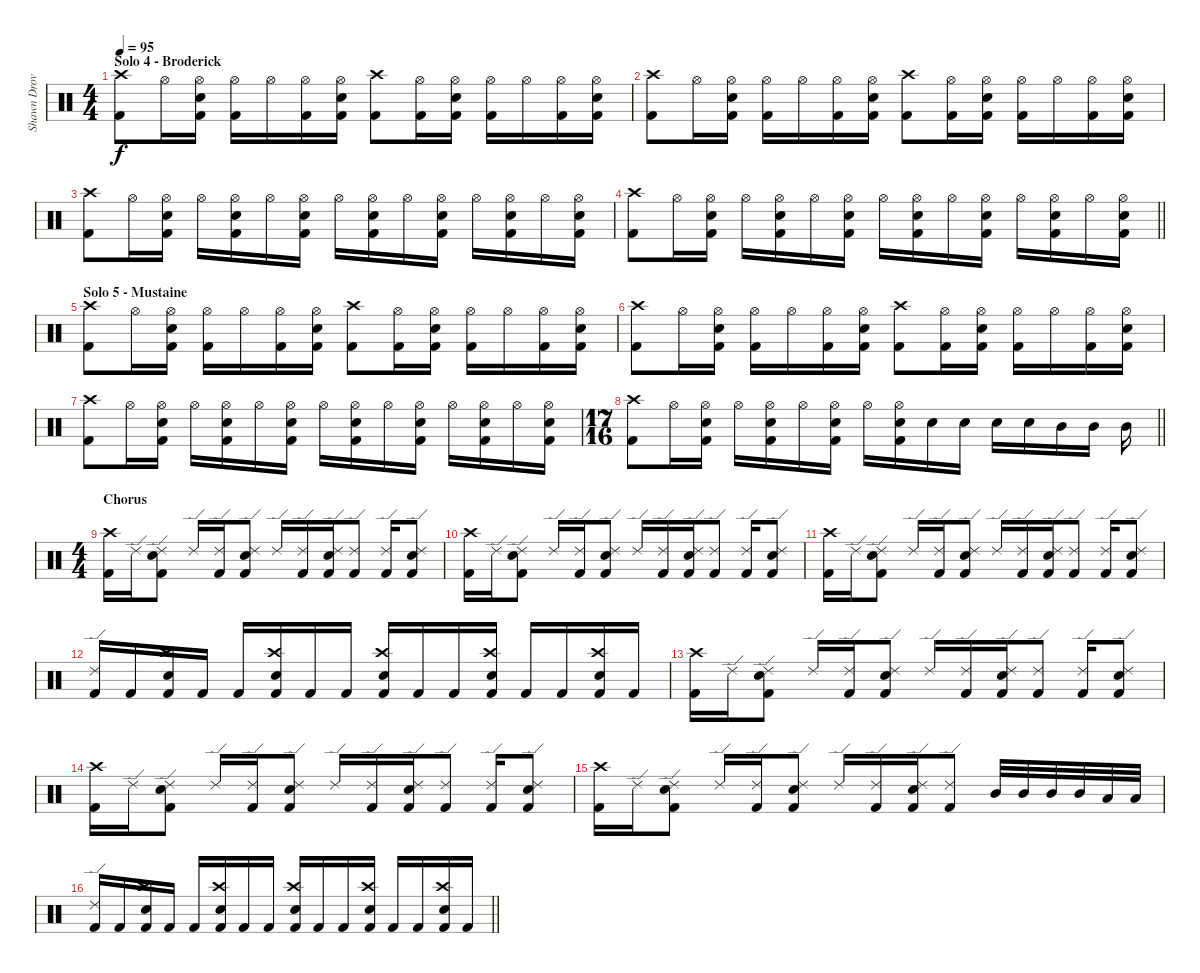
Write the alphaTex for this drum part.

\track ("Shawn Drover " "Shawn Drov") {instrument percussion}
\staff {score}
\articulation defaults
\ts (4 4)
\section ("" "Solo 4 - Broderick")
\tempo 95
\clef neutral
\ks c
("Kick (hit) 2" "Crash high (hit)").8{dy f} "Hi-Hat (open)".16 ("Kick (hit) 2" "Snare (hit) 2" "Hi-Hat (open)").16 ("Kick (hit) 2" "Hi-Hat (open)").16 "Hi-Hat (open)".16 ("Kick (hit) 2" "Hi-Hat (open)").16 ("Kick (hit) 2" "Snare (hit) 2" "Hi-Hat (open)").16 ("Kick (hit) 2" "Crash high (hit)").8 ("Kick (hit) 2" "Hi-Hat (open)").16 ("Kick (hit) 2" "Snare (hit) 2" "Hi-Hat (open)").16 ("Kick (hit) 2" "Hi-Hat (open)").16 "Hi-Hat (open)".16 ("Kick (hit) 2" "Hi-Hat (open)").16 ("Kick (hit) 2" "Snare (hit) 2" "Hi-Hat (open)").16 |
("Kick (hit) 2" "Crash high (hit)").8 "Hi-Hat (open)".16 ("Kick (hit) 2" "Snare (hit) 2" "Hi-Hat (open)").16 ("Kick (hit) 2" "Hi-Hat (open)").16 "Hi-Hat (open)".16 ("Kick (hit) 2" "Hi-Hat (open)").16 ("Kick (hit) 2" "Snare (hit) 2" "Hi-Hat (open)").16 ("Kick (hit) 2" "Crash high (hit)").8 ("Kick (hit) 2" "Hi-Hat (open)").16 ("Kick (hit) 2" "Snare (hit) 2" "Hi-Hat (open)").16 ("Kick (hit) 2" "Hi-Hat (open)").16 "Hi-Hat (open)".16 ("Kick (hit) 2" "Hi-Hat (open)").16 ("Kick (hit) 2" "Snare (hit) 2" "Hi-Hat (open)").16 |
("Kick (hit) 2" "Crash high (hit)").8 "Hi-Hat (open)".16 ("Kick (hit) 2" "Snare (hit) 2" "Hi-Hat (open)").16 "Hi-Hat (open)".16 ("Kick (hit) 2" "Snare (hit) 2" "Hi-Hat (open)").16 "Hi-Hat (open)".16 ("Kick (hit) 2" "Snare (hit) 2" "Hi-Hat (open)").16 "Hi-Hat (open)".16 ("Kick (hit) 2" "Snare (hit) 2" "Hi-Hat (open)").16 "Hi-Hat (open)".16 ("Kick (hit) 2" "Snare (hit) 2" "Hi-Hat (open)").16 "Hi-Hat (open)".16 ("Kick (hit) 2" "Snare (hit) 2" "Hi-Hat (open)").16 "Hi-Hat (open)".16 ("Kick (hit) 2" "Snare (hit) 2" "Hi-Hat (open)").16 |
\barLineRight lightlight
("Kick (hit) 2" "Crash high (hit)").8 "Hi-Hat (open)".16 ("Kick (hit) 2" "Snare (hit) 2" "Hi-Hat (open)").16 "Hi-Hat (open)".16 ("Kick (hit) 2" "Snare (hit) 2" "Hi-Hat (open)").16 "Hi-Hat (open)".16 ("Kick (hit) 2" "Snare (hit) 2" "Hi-Hat (open)").16 "Hi-Hat (open)".16 ("Kick (hit) 2" "Snare (hit) 2" "Hi-Hat (open)").16 "Hi-Hat (open)".16 ("Kick (hit) 2" "Snare (hit) 2" "Hi-Hat (open)").16 "Hi-Hat (open)".16 ("Kick (hit) 2" "Snare (hit) 2" "Hi-Hat (open)").16 "Hi-Hat (open)".16 ("Kick (hit) 2" "Snare (hit) 2" "Hi-Hat (open)").16 |
\section ("" "Solo 5 - Mustaine")
("Kick (hit) 2" "Crash high (hit)").8 "Hi-Hat (open)".16 ("Kick (hit) 2" "Snare (hit) 2" "Hi-Hat (open)").16 ("Kick (hit) 2" "Hi-Hat (open)").16 "Hi-Hat (open)".16 ("Kick (hit) 2" "Hi-Hat (open)").16 ("Kick (hit) 2" "Snare (hit) 2" "Hi-Hat (open)").16 ("Kick (hit) 2" "Crash high (hit)").8 ("Kick (hit) 2" "Hi-Hat (open)").16 ("Kick (hit) 2" "Snare (hit) 2" "Hi-Hat (open)").16 ("Kick (hit) 2" "Hi-Hat (open)").16 "Hi-Hat (open)".16 ("Kick (hit) 2" "Hi-Hat (open)").16 ("Kick (hit) 2" "Snare (hit) 2" "Hi-Hat (open)").16 |
("Kick (hit) 2" "Crash high (hit)").8 "Hi-Hat (open)".16 ("Kick (hit) 2" "Snare (hit) 2" "Hi-Hat (open)").16 ("Kick (hit) 2" "Hi-Hat (open)").16 "Hi-Hat (open)".16 ("Kick (hit) 2" "Hi-Hat (open)").16 ("Kick (hit) 2" "Snare (hit) 2" "Hi-Hat (open)").16 ("Kick (hit) 2" "Crash high (hit)").8 ("Kick (hit) 2" "Hi-Hat (open)").16 ("Kick (hit) 2" "Snare (hit) 2" "Hi-Hat (open)").16 ("Kick (hit) 2" "Hi-Hat (open)").16 "Hi-Hat (open)".16 ("Kick (hit) 2" "Hi-Hat (open)").16 ("Kick (hit) 2" "Snare (hit) 2" "Hi-Hat (open)").16 |
("Kick (hit) 2" "Crash high (hit)").8 "Hi-Hat (open)".16 ("Kick (hit) 2" "Snare (hit) 2" "Hi-Hat (open)").16 "Hi-Hat (open)".16 ("Kick (hit) 2" "Snare (hit) 2" "Hi-Hat (open)").16 "Hi-Hat (open)".16 ("Kick (hit) 2" "Snare (hit) 2" "Hi-Hat (open)").16 "Hi-Hat (open)".16 ("Kick (hit) 2" "Snare (hit) 2" "Hi-Hat (open)").16 "Hi-Hat (open)".16 ("Kick (hit) 2" "Snare (hit) 2" "Hi-Hat (open)").16 "Hi-Hat (open)".16 ("Kick (hit) 2" "Snare (hit) 2" "Hi-Hat (open)").16 "Hi-Hat (open)".16 ("Kick (hit) 2" "Snare (hit) 2" "Hi-Hat (open)").16 |
\ts (17 16)
\barLineRight lightlight
("Kick (hit) 2" "Crash high (hit)").8 "Hi-Hat (open)".16 ("Kick (hit) 2" "Snare (hit) 2" "Hi-Hat (open)").16 "Hi-Hat (open)".16 ("Kick (hit) 2" "Snare (hit) 2" "Hi-Hat (open)").16 "Hi-Hat (open)".16 ("Kick (hit) 2" "Snare (hit) 2" "Hi-Hat (open)").16 "Hi-Hat (open)".16 ("Kick (hit) 2" "Snare (hit) 2" "Hi-Hat (open)").16 "Snare (hit) 2".16 "Snare (hit) 2".16 "Snare (hit) 2".16 "Snare (hit) 2".16 "Mid Tom (hit)".16 "Mid Tom (hit)".16 "Mid Tom (hit)".16 |
\ts (4 4)
\section ("" "Chorus")
("Kick (hit) 2" "Crash high (hit)").16 "Ride (edge) 2".16 ("Kick (hit) 2" "Snare (hit) 2" "Ride (edge) 2").8 "Ride (edge) 2".16 ("Kick (hit) 2" "Ride (edge) 2").16 ("Kick (hit) 2" "Snare (hit) 2" "Ride (edge) 2").8 "Ride (edge) 2".16 ("Kick (hit) 2" "Ride (edge) 2").16 ("Kick (hit) 2" "Snare (hit) 2" "Ride (edge) 2").16 ("Kick (hit) 2" "Ride (edge) 2").8 ("Kick (hit) 2" "Ride (edge) 2").16 ("Kick (hit) 2" "Snare (hit) 2" "Ride (edge) 2").8 |
("Kick (hit) 2" "Crash high (hit)").16 "Ride (edge) 2".16 ("Kick (hit) 2" "Snare (hit) 2" "Ride (edge) 2").8 "Ride (edge) 2".16 ("Kick (hit) 2" "Ride (edge) 2").16 ("Kick (hit) 2" "Snare (hit) 2" "Ride (edge) 2").8 "Ride (edge) 2".16 ("Kick (hit) 2" "Ride (edge) 2").16 ("Kick (hit) 2" "Snare (hit) 2" "Ride (edge) 2").16 ("Kick (hit) 2" "Ride (edge) 2").8 ("Kick (hit) 2" "Ride (edge) 2").16 ("Kick (hit) 2" "Snare (hit) 2" "Ride (edge) 2").8 |
("Kick (hit) 2" "Crash high (hit)").16 "Ride (edge) 2".16 ("Kick (hit) 2" "Snare (hit) 2" "Ride (edge) 2").8 "Ride (edge) 2".16 ("Kick (hit) 2" "Ride (edge) 2").16 ("Kick (hit) 2" "Snare (hit) 2" "Ride (edge) 2").8 "Ride (edge) 2".16 ("Kick (hit) 2" "Ride (edge) 2").16 ("Kick (hit) 2" "Snare (hit) 2" "Ride (edge) 2").16 ("Kick (hit) 2" "Ride (edge) 2").8 ("Kick (hit) 2" "Ride (edge) 2").16 ("Kick (hit) 2" "Snare (hit) 2" "Ride (edge) 2").8 |
("Kick (hit) 2" "Ride (edge) 2").16 "Kick (hit) 2".16 ("Kick (hit) 2" "Snare (hit) 2" "Crash high (hit)").16 "Kick (hit) 2".16 "Kick (hit) 2".16 ("Kick (hit) 2" "Snare (hit) 2" "Crash high (hit)").16 "Kick (hit) 2".16 "Kick (hit) 2".16 ("Kick (hit) 2" "Snare (hit) 2" "Crash high (hit)").16 "Kick (hit) 2".16 "Kick (hit) 2".16 ("Kick (hit) 2" "Snare (hit) 2" "Crash high (hit)").16 "Kick (hit) 2".16 "Kick (hit) 2".16 ("Kick (hit) 2" "Snare (hit) 2" "Crash high (hit)").16 "Kick (hit) 2".16 |
("Kick (hit) 2" "Crash high (hit)").16 "Ride (edge) 2".16 ("Kick (hit) 2" "Snare (hit) 2" "Ride (edge) 2").8 "Ride (edge) 2".16 ("Kick (hit) 2" "Ride (edge) 2").16 ("Kick (hit) 2" "Snare (hit) 2" "Ride (edge) 2").8 "Ride (edge) 2".16 ("Kick (hit) 2" "Ride (edge) 2").16 ("Kick (hit) 2" "Snare (hit) 2" "Ride (edge) 2").16 ("Kick (hit) 2" "Ride (edge) 2").8 ("Kick (hit) 2" "Ride (edge) 2").16 ("Kick (hit) 2" "Snare (hit) 2" "Ride (edge) 2").8 |
("Kick (hit) 2" "Crash high (hit)").16 "Ride (edge) 2".16 ("Kick (hit) 2" "Snare (hit) 2" "Ride (edge) 2").8 "Ride (edge) 2".16 ("Kick (hit) 2" "Ride (edge) 2").16 ("Kick (hit) 2" "Snare (hit) 2" "Ride (edge) 2").8 "Ride (edge) 2".16 ("Kick (hit) 2" "Ride (edge) 2").16 ("Kick (hit) 2" "Snare (hit) 2" "Ride (edge) 2").16 ("Kick (hit) 2" "Ride (edge) 2").8 ("Kick (hit) 2" "Ride (edge) 2").16 ("Kick (hit) 2" "Snare (hit) 2" "Ride (edge) 2").8 |
("Kick (hit) 2" "Crash high (hit)").16 "Ride (edge) 2".16 ("Kick (hit) 2" "Snare (hit) 2" "Ride (edge) 2").8 "Ride (edge) 2".16 ("Kick (hit) 2" "Ride (edge) 2").16 ("Kick (hit) 2" "Snare (hit) 2" "Ride (edge) 2").8 "Ride (edge) 2".16 ("Kick (hit) 2" "Ride (edge) 2").16 ("Kick (hit) 2" "Snare (hit) 2" "Ride (edge) 2").16 ("Kick (hit) 2" "Ride (edge) 2").8 "Mid Tom (hit)".32 "Mid Tom (hit)".32 "Mid Tom (hit)".32 "Mid Tom (hit)".32 "Low Tom (hit)".32 "Low Tom (hit)".32 |
\barLineRight lightlight
("Kick (hit) 2" "Ride (edge) 2").16 "Kick (hit) 2".16 ("Kick (hit) 2" "Snare (hit) 2" "Crash high (hit)").16 "Kick (hit) 2".16 "Kick (hit) 2".16 ("Kick (hit) 2" "Snare (hit) 2" "Crash high (hit)").16 "Kick (hit) 2".16 "Kick (hit) 2".16 ("Kick (hit) 2" "Snare (hit) 2" "Crash high (hit)").16 "Kick (hit) 2".16 "Kick (hit) 2".16 ("Kick (hit) 2" "Snare (hit) 2" "Crash high (hit)").16 "Kick (hit) 2".16 "Kick (hit) 2".16 ("Kick (hit) 2" "Snare (hit) 2" "Crash high (hit)").16 "Kick (hit) 2".16
